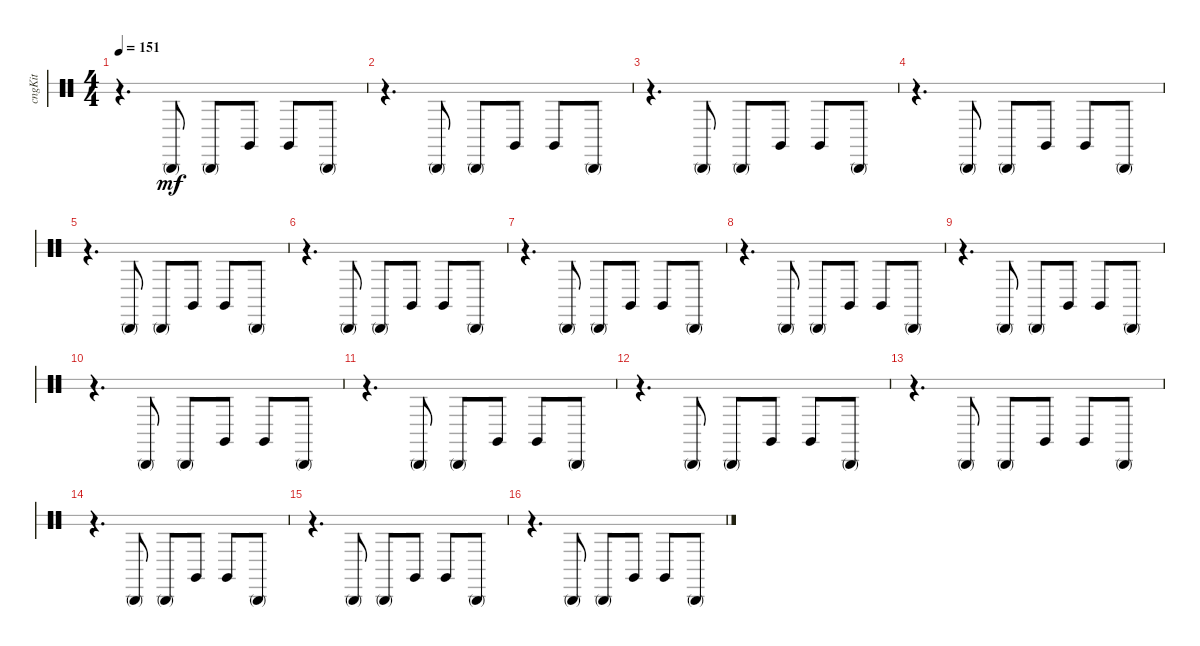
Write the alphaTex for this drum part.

\bracketExtendMode groupsimilarinstruments
\track ("Congas" "cngKit") {instrument percussion}
\staff {score 2}
\articulation defaults
\ts (4 4)
\tempo 151
\clef neutral
\ks aminor
r.4{d dy mf} "Conga high (mute)".8 "Conga high (mute)".8 "Conga high (hit)".8 "Conga high (hit)".8 "Conga high (mute)".8 |
r.4{d} "Conga high (mute)".8 "Conga high (mute)".8 "Conga high (hit)".8 "Conga high (hit)".8 "Conga high (mute)".8 |
r.4{d} "Conga high (mute)".8 "Conga high (mute)".8 "Conga high (hit)".8 "Conga high (hit)".8 "Conga high (mute)".8 |
r.4{d} "Conga high (mute)".8 "Conga high (mute)".8 "Conga high (hit)".8 "Conga high (hit)".8 "Conga high (mute)".8 |
r.4{d} "Conga high (mute)".8 "Conga high (mute)".8 "Conga high (hit)".8 "Conga high (hit)".8 "Conga high (mute)".8 |
r.4{d} "Conga high (mute)".8 "Conga high (mute)".8 "Conga high (hit)".8 "Conga high (hit)".8 "Conga high (mute)".8 |
r.4{d} "Conga high (mute)".8 "Conga high (mute)".8 "Conga high (hit)".8 "Conga high (hit)".8 "Conga high (mute)".8 |
r.4{d} "Conga high (mute)".8 "Conga high (mute)".8 "Conga high (hit)".8 "Conga high (hit)".8 "Conga high (mute)".8 |
r.4{d} "Conga high (mute)".8 "Conga high (mute)".8 "Conga high (hit)".8 "Conga high (hit)".8 "Conga high (mute)".8 |
r.4{d} "Conga high (mute)".8 "Conga high (mute)".8 "Conga high (hit)".8 "Conga high (hit)".8 "Conga high (mute)".8 |
r.4{d} "Conga high (mute)".8 "Conga high (mute)".8 "Conga high (hit)".8 "Conga high (hit)".8 "Conga high (mute)".8 |
r.4{d} "Conga high (mute)".8 "Conga high (mute)".8 "Conga high (hit)".8 "Conga high (hit)".8 "Conga high (mute)".8 |
r.4{d} "Conga high (mute)".8 "Conga high (mute)".8 "Conga high (hit)".8 "Conga high (hit)".8 "Conga high (mute)".8 |
r.4{d} "Conga high (mute)".8 "Conga high (mute)".8 "Conga high (hit)".8 "Conga high (hit)".8 "Conga high (mute)".8 |
r.4{d} "Conga high (mute)".8 "Conga high (mute)".8 "Conga high (hit)".8 "Conga high (hit)".8 "Conga high (mute)".8 |
r.4{d} "Conga high (mute)".8 "Conga high (mute)".8 "Conga high (hit)".8 "Conga high (hit)".8 "Conga high (mute)".8
